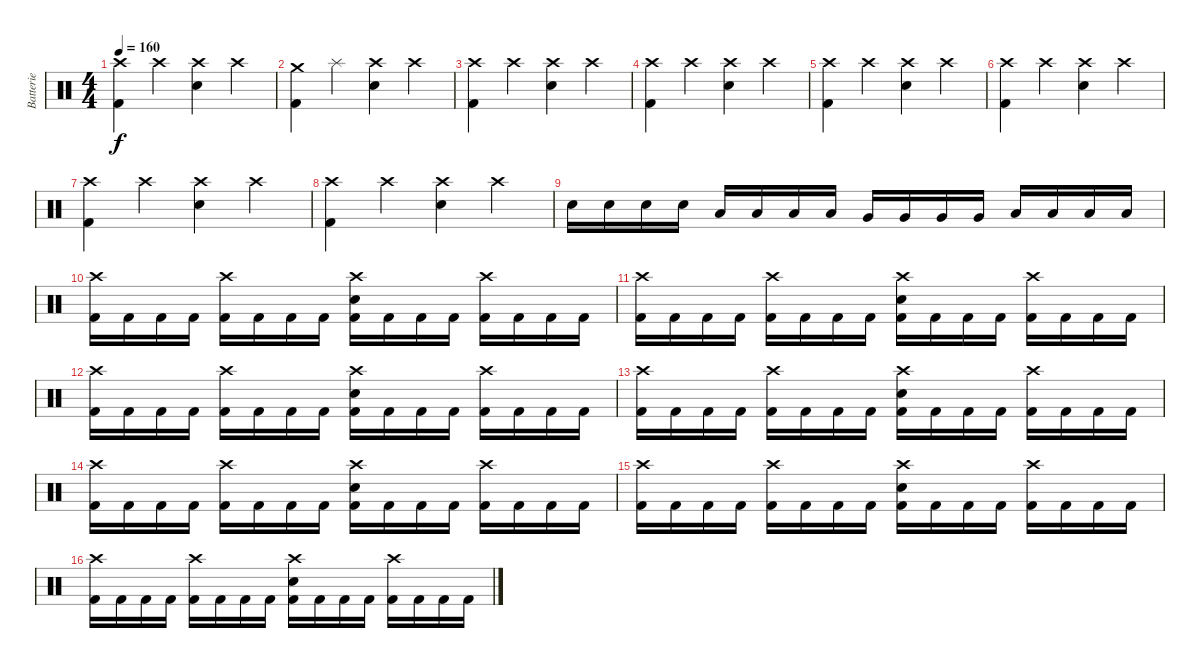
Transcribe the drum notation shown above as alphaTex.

\track ("Batterie" "Batterie") {instrument percussion}
\staff {score}
\articulation defaults
\ts (4 4)
\tempo 160
\clef neutral
\ks c
("Crash high (hit)" "Kick (hit) 2").4{dy f} "Crash high (hit)".4 ("Crash high (hit)" "Electric Snare (hit)").4 "Crash high (hit)".4 |
("Crash medium (hit)" "Kick (hit) 2").4 "Splash (hit)".4 ("Crash high (hit)" "Electric Snare (hit)").4 "Crash high (hit)".4 |
("Crash high (hit)" "Kick (hit) 2").4 "Crash high (hit)".4 ("Crash high (hit)" "Electric Snare (hit)").4 "Crash high (hit)".4 |
("Crash high (hit)" "Kick (hit) 2").4 "Crash high (hit)".4 ("Crash high (hit)" "Electric Snare (hit)").4 "Crash high (hit)".4 |
("Crash high (hit)" "Kick (hit) 2").4 "Crash high (hit)".4 ("Crash high (hit)" "Electric Snare (hit)").4 "Crash high (hit)".4 |
("Crash high (hit)" "Kick (hit) 2").4 "Crash high (hit)".4 ("Crash high (hit)" "Electric Snare (hit)").4 "Crash high (hit)".4 |
("Crash high (hit)" "Kick (hit) 2").4 "Crash high (hit)".4 ("Crash high (hit)" "Electric Snare (hit)").4 "Crash high (hit)".4 |
("Crash high (hit)" "Kick (hit) 2").4 "Crash high (hit)".4 ("Crash high (hit)" "Electric Snare (hit)").4 "Crash high (hit)".4 |
"Electric Snare (hit)".16 "Electric Snare (hit)".16 "Electric Snare (hit)".16 "Electric Snare (hit)".16 "Low Tom (hit)".16 "Low Tom (hit)".16 "Low Tom (hit)".16 "Low Tom (hit)".16 "Very Low Tom (hit)".16 "Very Low Tom (hit)".16 "Very Low Tom (hit)".16 "Very Low Tom (hit)".16 "Low Floor Tom (hit)".16 "Low Floor Tom (hit)".16 "Low Floor Tom (hit)".16 "Low Floor Tom (hit)".16 |
("Crash high (hit)" "Kick (hit) 2").16 "Kick (hit) 2".16 "Kick (hit) 2".16 "Kick (hit) 2".16 ("Crash high (hit)" "Kick (hit) 2").16 "Kick (hit) 2".16 "Kick (hit) 2".16 "Kick (hit) 2".16 ("Crash high (hit)" "Electric Snare (hit)" "Kick (hit) 2").16 "Kick (hit) 2".16 "Kick (hit) 2".16 "Kick (hit) 2".16 ("Crash high (hit)" "Kick (hit) 2").16 "Kick (hit) 2".16 "Kick (hit) 2".16 "Kick (hit) 2".16 |
("Crash high (hit)" "Kick (hit) 2").16 "Kick (hit) 2".16 "Kick (hit) 2".16 "Kick (hit) 2".16 ("Crash high (hit)" "Kick (hit) 2").16 "Kick (hit) 2".16 "Kick (hit) 2".16 "Kick (hit) 2".16 ("Crash high (hit)" "Electric Snare (hit)" "Kick (hit) 2").16 "Kick (hit) 2".16 "Kick (hit) 2".16 "Kick (hit) 2".16 ("Crash high (hit)" "Kick (hit) 2").16 "Kick (hit) 2".16 "Kick (hit) 2".16 "Kick (hit) 2".16 |
("Crash high (hit)" "Kick (hit) 2").16 "Kick (hit) 2".16 "Kick (hit) 2".16 "Kick (hit) 2".16 ("Crash high (hit)" "Kick (hit) 2").16 "Kick (hit) 2".16 "Kick (hit) 2".16 "Kick (hit) 2".16 ("Crash high (hit)" "Electric Snare (hit)" "Kick (hit) 2").16 "Kick (hit) 2".16 "Kick (hit) 2".16 "Kick (hit) 2".16 ("Crash high (hit)" "Kick (hit) 2").16 "Kick (hit) 2".16 "Kick (hit) 2".16 "Kick (hit) 2".16 |
("Crash high (hit)" "Kick (hit) 2").16 "Kick (hit) 2".16 "Kick (hit) 2".16 "Kick (hit) 2".16 ("Crash high (hit)" "Kick (hit) 2").16 "Kick (hit) 2".16 "Kick (hit) 2".16 "Kick (hit) 2".16 ("Crash high (hit)" "Electric Snare (hit)" "Kick (hit) 2").16 "Kick (hit) 2".16 "Kick (hit) 2".16 "Kick (hit) 2".16 ("Crash high (hit)" "Kick (hit) 2").16 "Kick (hit) 2".16 "Kick (hit) 2".16 "Kick (hit) 2".16 |
("Crash high (hit)" "Kick (hit) 2").16 "Kick (hit) 2".16 "Kick (hit) 2".16 "Kick (hit) 2".16 ("Crash high (hit)" "Kick (hit) 2").16 "Kick (hit) 2".16 "Kick (hit) 2".16 "Kick (hit) 2".16 ("Crash high (hit)" "Electric Snare (hit)" "Kick (hit) 2").16 "Kick (hit) 2".16 "Kick (hit) 2".16 "Kick (hit) 2".16 ("Crash high (hit)" "Kick (hit) 2").16 "Kick (hit) 2".16 "Kick (hit) 2".16 "Kick (hit) 2".16 |
("Crash high (hit)" "Kick (hit) 2").16 "Kick (hit) 2".16 "Kick (hit) 2".16 "Kick (hit) 2".16 ("Crash high (hit)" "Kick (hit) 2").16 "Kick (hit) 2".16 "Kick (hit) 2".16 "Kick (hit) 2".16 ("Crash high (hit)" "Electric Snare (hit)" "Kick (hit) 2").16 "Kick (hit) 2".16 "Kick (hit) 2".16 "Kick (hit) 2".16 ("Crash high (hit)" "Kick (hit) 2").16 "Kick (hit) 2".16 "Kick (hit) 2".16 "Kick (hit) 2".16 |
("Crash high (hit)" "Kick (hit) 2").16 "Kick (hit) 2".16 "Kick (hit) 2".16 "Kick (hit) 2".16 ("Crash high (hit)" "Kick (hit) 2").16 "Kick (hit) 2".16 "Kick (hit) 2".16 "Kick (hit) 2".16 ("Crash high (hit)" "Electric Snare (hit)" "Kick (hit) 2").16 "Kick (hit) 2".16 "Kick (hit) 2".16 "Kick (hit) 2".16 ("Crash high (hit)" "Kick (hit) 2").16 "Kick (hit) 2".16 "Kick (hit) 2".16 "Kick (hit) 2".16
